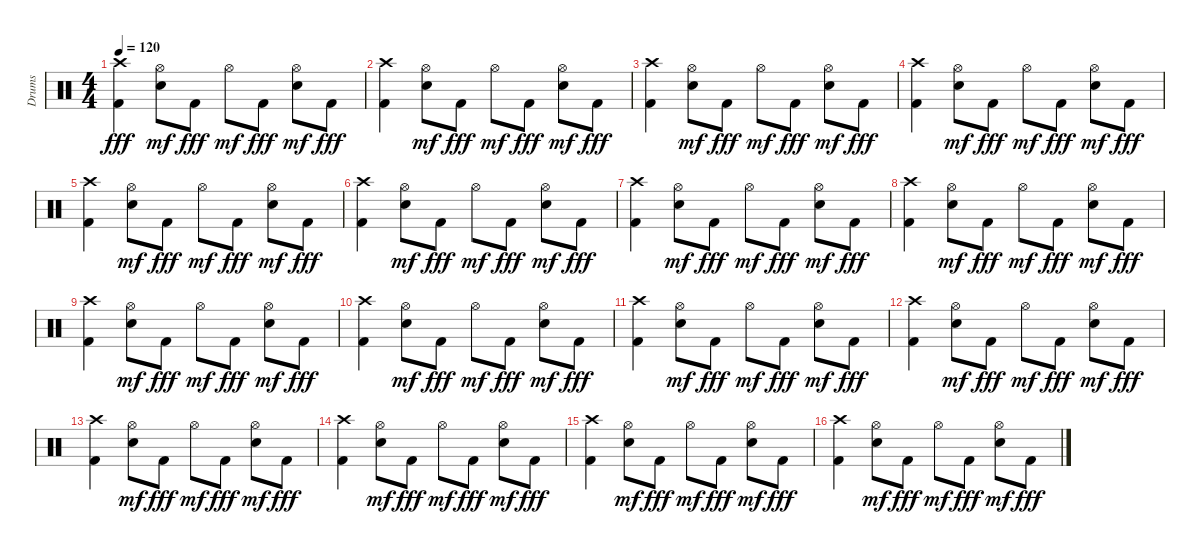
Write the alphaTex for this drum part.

\track ("Drums" "Drums") {instrument percussion}
\staff {score}
\articulation defaults
\ts (4 4)
\tempo 120
\clef neutral
\ks c
("Crash high (hit)" "Kick (hit) 2").4{dy fff} ("Hi-Hat (open)" "Electric Snare (hit)").8{dy mf} "Kick (hit) 2".8{dy fff} "Hi-Hat (open)".8{dy mf} "Kick (hit) 2".8{dy fff} ("Hi-Hat (open)" "Electric Snare (hit)").8{dy mf} "Kick (hit) 2".8{dy fff} |
("Crash high (hit)" "Kick (hit) 2").4 ("Hi-Hat (open)" "Electric Snare (hit)").8{dy mf} "Kick (hit) 2".8{dy fff} "Hi-Hat (open)".8{dy mf} "Kick (hit) 2".8{dy fff} ("Hi-Hat (open)" "Electric Snare (hit)").8{dy mf} "Kick (hit) 2".8{dy fff} |
("Crash high (hit)" "Kick (hit) 2").4 ("Hi-Hat (open)" "Electric Snare (hit)").8{dy mf} "Kick (hit) 2".8{dy fff} "Hi-Hat (open)".8{dy mf} "Kick (hit) 2".8{dy fff} ("Hi-Hat (open)" "Electric Snare (hit)").8{dy mf} "Kick (hit) 2".8{dy fff} |
("Crash high (hit)" "Kick (hit) 2").4 ("Hi-Hat (open)" "Electric Snare (hit)").8{dy mf} "Kick (hit) 2".8{dy fff} "Hi-Hat (open)".8{dy mf} "Kick (hit) 2".8{dy fff} ("Hi-Hat (open)" "Electric Snare (hit)").8{dy mf} "Kick (hit) 2".8{dy fff} |
("Crash high (hit)" "Kick (hit) 2").4 ("Hi-Hat (open)" "Electric Snare (hit)").8{dy mf} "Kick (hit) 2".8{dy fff} "Hi-Hat (open)".8{dy mf} "Kick (hit) 2".8{dy fff} ("Hi-Hat (open)" "Electric Snare (hit)").8{dy mf} "Kick (hit) 2".8{dy fff} |
("Crash high (hit)" "Kick (hit) 2").4 ("Hi-Hat (open)" "Electric Snare (hit)").8{dy mf} "Kick (hit) 2".8{dy fff} "Hi-Hat (open)".8{dy mf} "Kick (hit) 2".8{dy fff} ("Hi-Hat (open)" "Electric Snare (hit)").8{dy mf} "Kick (hit) 2".8{dy fff} |
("Crash high (hit)" "Kick (hit) 2").4 ("Hi-Hat (open)" "Electric Snare (hit)").8{dy mf} "Kick (hit) 2".8{dy fff} "Hi-Hat (open)".8{dy mf} "Kick (hit) 2".8{dy fff} ("Hi-Hat (open)" "Electric Snare (hit)").8{dy mf} "Kick (hit) 2".8{dy fff} |
("Crash high (hit)" "Kick (hit) 2").4 ("Hi-Hat (open)" "Electric Snare (hit)").8{dy mf} "Kick (hit) 2".8{dy fff} "Hi-Hat (open)".8{dy mf} "Kick (hit) 2".8{dy fff} ("Hi-Hat (open)" "Electric Snare (hit)").8{dy mf} "Kick (hit) 2".8{dy fff} |
("Crash high (hit)" "Kick (hit) 2").4 ("Hi-Hat (open)" "Electric Snare (hit)").8{dy mf} "Kick (hit) 2".8{dy fff} "Hi-Hat (open)".8{dy mf} "Kick (hit) 2".8{dy fff} ("Hi-Hat (open)" "Electric Snare (hit)").8{dy mf} "Kick (hit) 2".8{dy fff} |
("Crash high (hit)" "Kick (hit) 2").4 ("Hi-Hat (open)" "Electric Snare (hit)").8{dy mf} "Kick (hit) 2".8{dy fff} "Hi-Hat (open)".8{dy mf} "Kick (hit) 2".8{dy fff} ("Hi-Hat (open)" "Electric Snare (hit)").8{dy mf} "Kick (hit) 2".8{dy fff} |
("Crash high (hit)" "Kick (hit) 2").4 ("Hi-Hat (open)" "Electric Snare (hit)").8{dy mf} "Kick (hit) 2".8{dy fff} "Hi-Hat (open)".8{dy mf} "Kick (hit) 2".8{dy fff} ("Hi-Hat (open)" "Electric Snare (hit)").8{dy mf} "Kick (hit) 2".8{dy fff} |
("Crash high (hit)" "Kick (hit) 2").4 ("Hi-Hat (open)" "Electric Snare (hit)").8{dy mf} "Kick (hit) 2".8{dy fff} "Hi-Hat (open)".8{dy mf} "Kick (hit) 2".8{dy fff} ("Hi-Hat (open)" "Electric Snare (hit)").8{dy mf} "Kick (hit) 2".8{dy fff} |
("Crash high (hit)" "Kick (hit) 2").4 ("Hi-Hat (open)" "Electric Snare (hit)").8{dy mf} "Kick (hit) 2".8{dy fff} "Hi-Hat (open)".8{dy mf} "Kick (hit) 2".8{dy fff} ("Hi-Hat (open)" "Electric Snare (hit)").8{dy mf} "Kick (hit) 2".8{dy fff} |
("Crash high (hit)" "Kick (hit) 2").4 ("Hi-Hat (open)" "Electric Snare (hit)").8{dy mf} "Kick (hit) 2".8{dy fff} "Hi-Hat (open)".8{dy mf} "Kick (hit) 2".8{dy fff} ("Hi-Hat (open)" "Electric Snare (hit)").8{dy mf} "Kick (hit) 2".8{dy fff} |
("Crash high (hit)" "Kick (hit) 2").4 ("Hi-Hat (open)" "Electric Snare (hit)").8{dy mf} "Kick (hit) 2".8{dy fff} "Hi-Hat (open)".8{dy mf} "Kick (hit) 2".8{dy fff} ("Hi-Hat (open)" "Electric Snare (hit)").8{dy mf} "Kick (hit) 2".8{dy fff} |
("Crash high (hit)" "Kick (hit) 2").4 ("Hi-Hat (open)" "Electric Snare (hit)").8{dy mf} "Kick (hit) 2".8{dy fff} "Hi-Hat (open)".8{dy mf} "Kick (hit) 2".8{dy fff} ("Hi-Hat (open)" "Electric Snare (hit)").8{dy mf} "Kick (hit) 2".8{dy fff}
